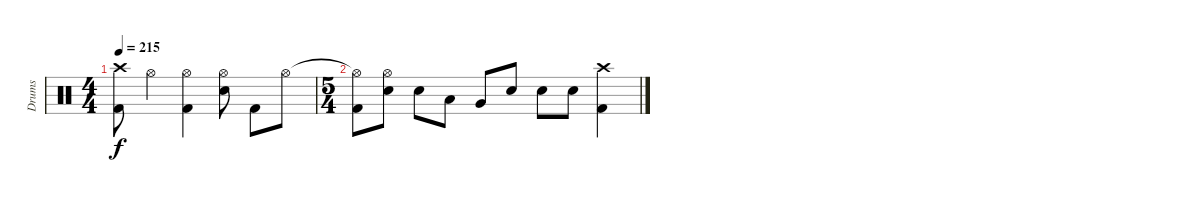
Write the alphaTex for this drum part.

\track ("Drums" "Drums") {instrument percussion}
\staff {score}
\articulation defaults
\ts (4 4)
\tempo 215
\clef neutral
\ks c
("Crash high (hit)" "Kick (hit) 2").8{dy f} "Hi-Hat (open)".4 ("Hi-Hat (open)" "Kick (hit) 2").4 ("Hi-Hat (open)" "Snare (hit) 2").8 "Kick (hit) 2".8 "Hi-Hat (open)".8 |
\ts (5 4)
("Hi-Hat (open)"{t} "Kick (hit) 2").8 ("Hi-Hat (open)" "Snare (hit) 2").8 "Snare (hit) 2".8 "Low Tom (hit)".8 "Very Low Tom (hit)".8 "Snare (hit) 2".8 "Snare (hit) 2".8 "Snare (hit) 2".8 ("Crash high (hit)" "Kick (hit) 2").4
